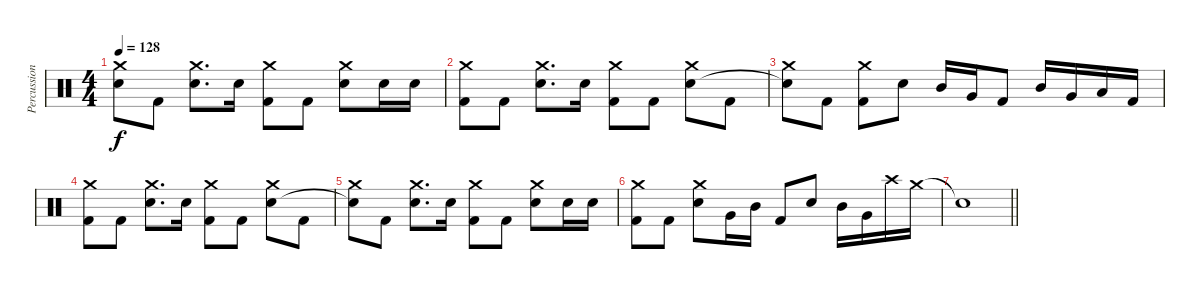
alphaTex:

\track ("Percussion" "Percussion") {instrument percussion}
\staff {score}
\articulation defaults
\ts (4 4)
\tempo 128
\clef neutral
\ks c
("Crash medium (hit)" "Snare (hit)"{t}).8{dy f} "Kick (hit) 2".8 ("Crash medium (hit)" "Snare (hit) 2").8{d} "Snare (hit) 2".16 ("Crash medium (hit)" "Kick (hit) 2").8 "Kick (hit) 2".8 ("Crash medium (hit)" "Snare (hit) 2").8 "Snare (hit) 2".16 "Snare (hit) 2".16 |
("Crash medium (hit)" "Kick (hit) 2").8 "Kick (hit) 2".8 ("Crash medium (hit)" "Snare (hit) 2").8{d} "Snare (hit) 2".16 ("Crash medium (hit)" "Kick (hit) 2").8 "Kick (hit) 2".8 ("Crash medium (hit)" "Snare (hit) 2").8 "Kick (hit) 2".8 |
("Crash medium (hit)" "Snare (hit)"{t}).8 "Kick (hit) 2".8 ("Crash medium (hit)" "Kick (hit) 2").8 "Snare (hit) 2".8 "Mid Tom (hit)".16 "Very Low Tom (hit)".16 "Kick (hit) 2".8 "Mid Tom (hit)".16 "Very Low Tom (hit)".16 "Low Tom (hit)".16 "Kick (hit) 2".16 |
("Crash medium (hit)" "Kick (hit) 2").8 "Kick (hit) 2".8 ("Crash medium (hit)" "Snare (hit) 2").8{d} "Snare (hit) 2".16 ("Crash medium (hit)" "Kick (hit) 2").8 "Kick (hit) 2".8 ("Crash medium (hit)" "Snare (hit) 2").8 "Kick (hit) 2".8 |
("Crash medium (hit)" "Snare (hit)"{t}).8 "Kick (hit) 2".8 ("Crash medium (hit)" "Snare (hit) 2").8{d} "Snare (hit) 2".16 ("Crash medium (hit)" "Kick (hit) 2").8 "Kick (hit) 2".8 ("Crash medium (hit)" "Snare (hit) 2").8 "Snare (hit) 2".16 "Snare (hit) 2".16 |
("Crash medium (hit)" "Kick (hit) 2").8 "Kick (hit) 2".8 ("Crash medium (hit)" "Snare (hit) 2").8 "Very Low Tom (hit)".16 "Mid Tom (hit)".16 "Kick (hit) 2".8 "Snare (hit) 2".8 "Mid Tom (hit)".16 "Very Low Tom (hit)".16 "Crash high (hit)".16 "Crash medium (hit)".16 |
\barLineRight lightlight "Snare (hit)"{t}.1
